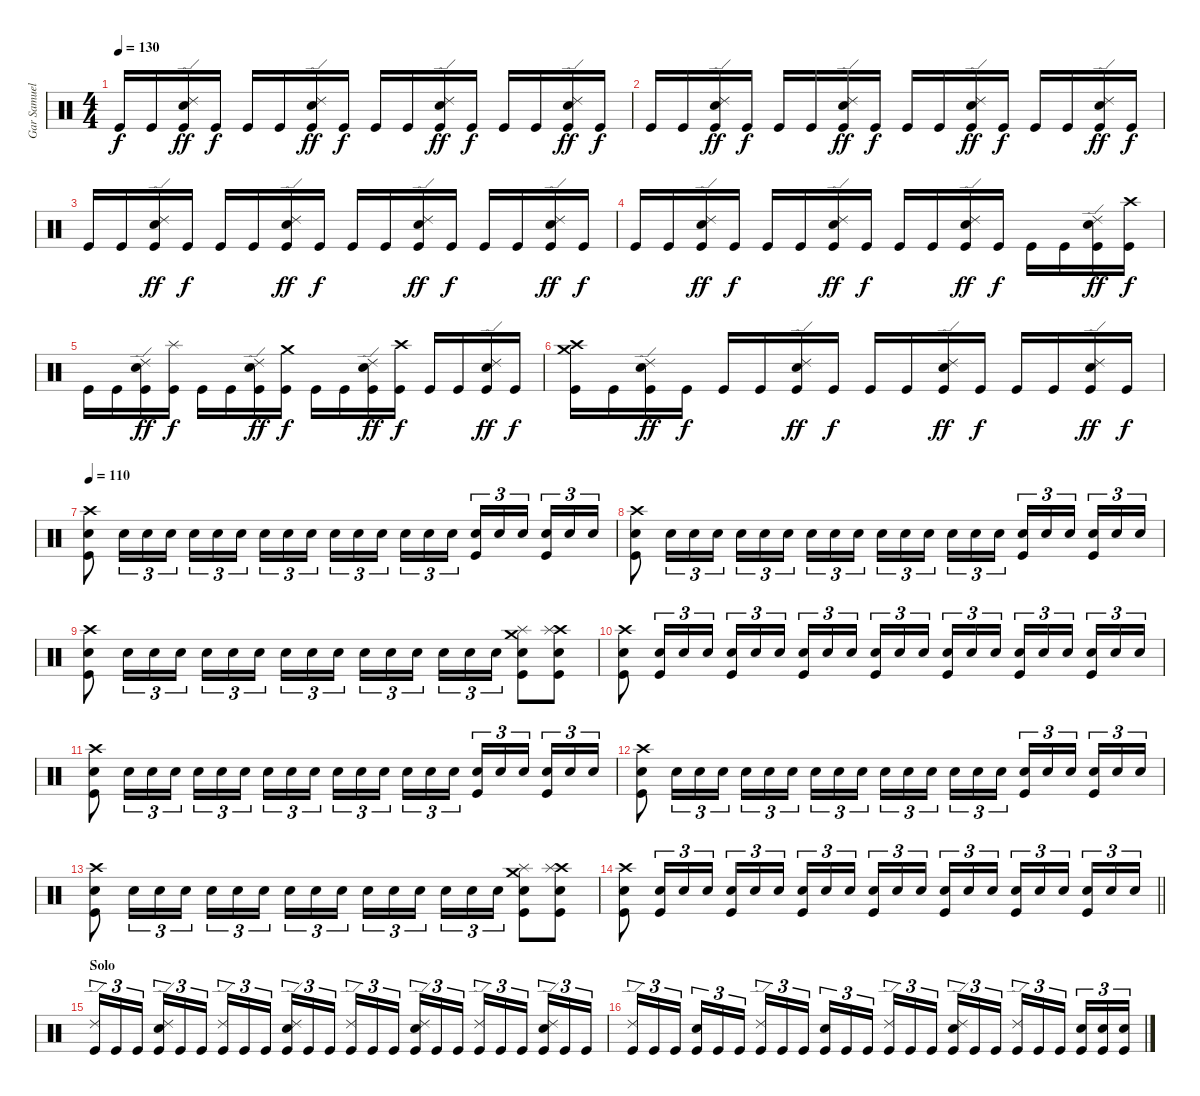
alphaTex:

\track ("Gar Samuelson" "Gar Samuel") {instrument percussion}
\staff {score}
\articulation defaults
\ts (4 4)
\tempo 130
\clef neutral
\ks c "Kick (hit)".16{dy f} "Kick (hit)".16
("Ride (edge) 2" "Snare (hit) 2" "Kick (hit)").16{dy ff} "Kick (hit)".16{dy f} "Kick (hit)".16 "Kick (hit)".16 ("Ride (edge) 2" "Snare (hit) 2" "Kick (hit)").16{dy ff} "Kick (hit)".16{dy f} "Kick (hit)".16 "Kick (hit)".16 ("Ride (edge) 2" "Snare (hit) 2" "Kick (hit)").16{dy ff} "Kick (hit)".16{dy f} "Kick (hit)".16 "Kick (hit)".16 ("Ride (edge) 2" "Snare (hit) 2" "Kick (hit)").16{dy ff} "Kick (hit)".16{dy f} |
"Kick (hit)".16 "Kick (hit)".16 ("Ride (edge) 2" "Snare (hit) 2" "Kick (hit)").16{dy ff} "Kick (hit)".16{dy f} "Kick (hit)".16 "Kick (hit)".16 ("Ride (edge) 2" "Snare (hit) 2" "Kick (hit)").16{dy ff} "Kick (hit)".16{dy f} "Kick (hit)".16 "Kick (hit)".16 ("Ride (edge) 2" "Snare (hit) 2" "Kick (hit)").16{dy ff} "Kick (hit)".16{dy f} "Kick (hit)".16 "Kick (hit)".16 ("Ride (edge) 2" "Snare (hit) 2" "Kick (hit)").16{dy ff} "Kick (hit)".16{dy f} |
"Kick (hit)".16 "Kick (hit)".16 ("Ride (edge) 2" "Snare (hit) 2" "Kick (hit)").16{dy ff} "Kick (hit)".16{dy f} "Kick (hit)".16 "Kick (hit)".16 ("Ride (edge) 2" "Snare (hit) 2" "Kick (hit)").16{dy ff} "Kick (hit)".16{dy f} "Kick (hit)".16 "Kick (hit)".16 ("Ride (edge) 2" "Snare (hit) 2" "Kick (hit)").16{dy ff} "Kick (hit)".16{dy f} "Kick (hit)".16 "Kick (hit)".16 ("Ride (edge) 2" "Snare (hit) 2" "Kick (hit)").16{dy ff} "Kick (hit)".16{dy f} |
"Kick (hit)".16 "Kick (hit)".16 ("Ride (edge) 2" "Snare (hit) 2" "Kick (hit)").16{dy ff} "Kick (hit)".16{dy f} "Kick (hit)".16 "Kick (hit)".16 ("Ride (edge) 2" "Snare (hit) 2" "Kick (hit)").16{dy ff} "Kick (hit)".16{dy f} "Kick (hit)".16 "Kick (hit)".16 ("Ride (edge) 2" "Snare (hit) 2" "Kick (hit)").16{dy ff} "Kick (hit)".16{dy f} "Kick (hit)".16 "Kick (hit)".16 ("Ride (edge) 2" "Snare (hit) 2" "Kick (hit)").16{dy ff} ("Crash high (hit)" "Kick (hit)").16{dy f} |
"Kick (hit)".16 "Kick (hit)".16 ("Ride (edge) 2" "Snare (hit) 2" "Kick (hit)").16{dy ff} ("Splash (hit)" "Kick (hit)").16{dy f} "Kick (hit)".16 "Kick (hit)".16 ("Ride (edge) 2" "Snare (hit) 2" "Kick (hit)").16{dy ff} ("Crash medium (hit)" "Kick (hit)").16{dy f} "Kick (hit)".16 "Kick (hit)".16 ("Ride (edge) 2" "Snare (hit) 2" "Kick (hit)").16{dy ff} ("Crash high (hit)" "Kick (hit)").16{dy f} "Kick (hit)".16 "Kick (hit)".16 ("Ride (edge) 2" "Snare (hit) 2" "Kick (hit)").16{dy ff} "Kick (hit)".16{dy f} |
("Crash high (hit)" "Crash medium (hit)" "Kick (hit)").16 "Kick (hit)".16 ("Ride (edge) 2" "Snare (hit) 2" "Kick (hit)").16{dy ff} "Kick (hit)".16{dy f} "Kick (hit)".16 "Kick (hit)".16 ("Ride (edge) 2" "Snare (hit) 2" "Kick (hit)").16{dy ff} "Kick (hit)".16{dy f} "Kick (hit)".16 "Kick (hit)".16 ("Ride (edge) 2" "Snare (hit) 2" "Kick (hit)").16{dy ff} "Kick (hit)".16{dy f} "Kick (hit)".16 "Kick (hit)".16 ("Ride (edge) 2" "Snare (hit) 2" "Kick (hit)").16{dy ff} "Kick (hit)".16{dy f} |
\tempo 110
("Crash high (hit)" "Snare (hit) 2" "Kick (hit)").8 "Snare (hit) 2".16{tu (3 2)} "Snare (hit) 2".16{tu (3 2)} "Snare (hit) 2".16{tu (3 2)} "Snare (hit) 2".16{tu (3 2)} "Snare (hit) 2".16{tu (3 2)} "Snare (hit) 2".16{tu (3 2)} "Snare (hit) 2".16{tu (3 2)} "Snare (hit) 2".16{tu (3 2)} "Snare (hit) 2".16{tu (3 2)} "Snare (hit) 2".16{tu (3 2)} "Snare (hit) 2".16{tu (3 2)} "Snare (hit) 2".16{tu (3 2)} "Snare (hit) 2".16{tu (3 2)} "Snare (hit) 2".16{tu (3 2)} "Snare (hit) 2".16{tu (3 2)} ("Snare (hit) 2" "Kick (hit)").16{tu (3 2)} "Snare (hit) 2".16{tu (3 2)} "Snare (hit) 2".16{tu (3 2)} ("Snare (hit) 2" "Kick (hit)").16{tu (3 2)} "Snare (hit) 2".16{tu (3 2)} "Snare (hit) 2".16{tu (3 2)} |
("Crash high (hit)" "Snare (hit) 2" "Kick (hit)").8 "Snare (hit) 2".16{tu (3 2)} "Snare (hit) 2".16{tu (3 2)} "Snare (hit) 2".16{tu (3 2)} "Snare (hit) 2".16{tu (3 2)} "Snare (hit) 2".16{tu (3 2)} "Snare (hit) 2".16{tu (3 2)} "Snare (hit) 2".16{tu (3 2)} "Snare (hit) 2".16{tu (3 2)} "Snare (hit) 2".16{tu (3 2)} "Snare (hit) 2".16{tu (3 2)} "Snare (hit) 2".16{tu (3 2)} "Snare (hit) 2".16{tu (3 2)} "Snare (hit) 2".16{tu (3 2)} "Snare (hit) 2".16{tu (3 2)} "Snare (hit) 2".16{tu (3 2)} ("Snare (hit) 2" "Kick (hit)").16{tu (3 2)} "Snare (hit) 2".16{tu (3 2)} "Snare (hit) 2".16{tu (3 2)} ("Snare (hit) 2" "Kick (hit)").16{tu (3 2)} "Snare (hit) 2".16{tu (3 2)} "Snare (hit) 2".16{tu (3 2)} |
("Crash high (hit)" "Snare (hit) 2" "Kick (hit)").8 "Snare (hit) 2".16{tu (3 2)} "Snare (hit) 2".16{tu (3 2)} "Snare (hit) 2".16{tu (3 2)} "Snare (hit) 2".16{tu (3 2)} "Snare (hit) 2".16{tu (3 2)} "Snare (hit) 2".16{tu (3 2)} "Snare (hit) 2".16{tu (3 2)} "Snare (hit) 2".16{tu (3 2)} "Snare (hit) 2".16{tu (3 2)} "Snare (hit) 2".16{tu (3 2)} "Snare (hit) 2".16{tu (3 2)} "Snare (hit) 2".16{tu (3 2)} "Snare (hit) 2".16{tu (3 2)} "Snare (hit) 2".16{tu (3 2)} "Snare (hit) 2".16{tu (3 2)} ("Crash medium (hit)" "Splash (hit)" "Snare (hit) 2" "Kick (hit)").8 ("Crash high (hit)" "Splash (hit)" "Snare (hit) 2" "Kick (hit)").8 |
("Crash high (hit)" "Snare (hit) 2" "Kick (hit)").8 ("Snare (hit) 2" "Kick (hit)").16{tu (3 2)} "Snare (hit) 2".16{tu (3 2)} "Snare (hit) 2".16{tu (3 2)} ("Snare (hit) 2" "Kick (hit)").16{tu (3 2)} "Snare (hit) 2".16{tu (3 2)} "Snare (hit) 2".16{tu (3 2)} ("Snare (hit) 2" "Kick (hit)").16{tu (3 2)} "Snare (hit) 2".16{tu (3 2)} "Snare (hit) 2".16{tu (3 2)} ("Snare (hit) 2" "Kick (hit)").16{tu (3 2)} "Snare (hit) 2".16{tu (3 2)} "Snare (hit) 2".16{tu (3 2)} ("Snare (hit) 2" "Kick (hit)").16{tu (3 2)} "Snare (hit) 2".16{tu (3 2)} "Snare (hit) 2".16{tu (3 2)} ("Snare (hit) 2" "Kick (hit)").16{tu (3 2)} "Snare (hit) 2".16{tu (3 2)} "Snare (hit) 2".16{tu (3 2)} ("Snare (hit) 2" "Kick (hit)").16{tu (3 2)} "Snare (hit) 2".16{tu (3 2)} "Snare (hit) 2".16{tu (3 2)} |
("Crash high (hit)" "Snare (hit) 2" "Kick (hit)").8 "Snare (hit) 2".16{tu (3 2)} "Snare (hit) 2".16{tu (3 2)} "Snare (hit) 2".16{tu (3 2)} "Snare (hit) 2".16{tu (3 2)} "Snare (hit) 2".16{tu (3 2)} "Snare (hit) 2".16{tu (3 2)} "Snare (hit) 2".16{tu (3 2)} "Snare (hit) 2".16{tu (3 2)} "Snare (hit) 2".16{tu (3 2)} "Snare (hit) 2".16{tu (3 2)} "Snare (hit) 2".16{tu (3 2)} "Snare (hit) 2".16{tu (3 2)} "Snare (hit) 2".16{tu (3 2)} "Snare (hit) 2".16{tu (3 2)} "Snare (hit) 2".16{tu (3 2)} ("Snare (hit) 2" "Kick (hit)").16{tu (3 2)} "Snare (hit) 2".16{tu (3 2)} "Snare (hit) 2".16{tu (3 2)} ("Snare (hit) 2" "Kick (hit)").16{tu (3 2)} "Snare (hit) 2".16{tu (3 2)} "Snare (hit) 2".16{tu (3 2)} |
("Crash high (hit)" "Snare (hit) 2" "Kick (hit)").8 "Snare (hit) 2".16{tu (3 2)} "Snare (hit) 2".16{tu (3 2)} "Snare (hit) 2".16{tu (3 2)} "Snare (hit) 2".16{tu (3 2)} "Snare (hit) 2".16{tu (3 2)} "Snare (hit) 2".16{tu (3 2)} "Snare (hit) 2".16{tu (3 2)} "Snare (hit) 2".16{tu (3 2)} "Snare (hit) 2".16{tu (3 2)} "Snare (hit) 2".16{tu (3 2)} "Snare (hit) 2".16{tu (3 2)} "Snare (hit) 2".16{tu (3 2)} "Snare (hit) 2".16{tu (3 2)} "Snare (hit) 2".16{tu (3 2)} "Snare (hit) 2".16{tu (3 2)} ("Snare (hit) 2" "Kick (hit)").16{tu (3 2)} "Snare (hit) 2".16{tu (3 2)} "Snare (hit) 2".16{tu (3 2)} ("Snare (hit) 2" "Kick (hit)").16{tu (3 2)} "Snare (hit) 2".16{tu (3 2)} "Snare (hit) 2".16{tu (3 2)} |
("Crash high (hit)" "Snare (hit) 2" "Kick (hit)").8 "Snare (hit) 2".16{tu (3 2)} "Snare (hit) 2".16{tu (3 2)} "Snare (hit) 2".16{tu (3 2)} "Snare (hit) 2".16{tu (3 2)} "Snare (hit) 2".16{tu (3 2)} "Snare (hit) 2".16{tu (3 2)} "Snare (hit) 2".16{tu (3 2)} "Snare (hit) 2".16{tu (3 2)} "Snare (hit) 2".16{tu (3 2)} "Snare (hit) 2".16{tu (3 2)} "Snare (hit) 2".16{tu (3 2)} "Snare (hit) 2".16{tu (3 2)} "Snare (hit) 2".16{tu (3 2)} "Snare (hit) 2".16{tu (3 2)} "Snare (hit) 2".16{tu (3 2)} ("Crash medium (hit)" "Splash (hit)" "Snare (hit) 2" "Kick (hit)").8 ("Crash high (hit)" "Splash (hit)" "Snare (hit) 2" "Kick (hit)").8 |
\barLineRight lightlight
("Crash high (hit)" "Snare (hit) 2" "Kick (hit)").8 ("Snare (hit) 2" "Kick (hit)").16{tu (3 2)} "Snare (hit) 2".16{tu (3 2)} "Snare (hit) 2".16{tu (3 2)} ("Snare (hit) 2" "Kick (hit)").16{tu (3 2)} "Snare (hit) 2".16{tu (3 2)} "Snare (hit) 2".16{tu (3 2)} ("Snare (hit) 2" "Kick (hit)").16{tu (3 2)} "Snare (hit) 2".16{tu (3 2)} "Snare (hit) 2".16{tu (3 2)} ("Snare (hit) 2" "Kick (hit)").16{tu (3 2)} "Snare (hit) 2".16{tu (3 2)} "Snare (hit) 2".16{tu (3 2)} ("Snare (hit) 2" "Kick (hit)").16{tu (3 2)} "Snare (hit) 2".16{tu (3 2)} "Snare (hit) 2".16{tu (3 2)} ("Snare (hit) 2" "Kick (hit)").16{tu (3 2)} "Snare (hit) 2".16{tu (3 2)} "Snare (hit) 2".16{tu (3 2)} ("Snare (hit) 2" "Kick (hit)").16{tu (3 2)} "Snare (hit) 2".16{tu (3 2)} "Snare (hit) 2".16{tu (3 2)} |
\section ("" "Solo")
("Ride (edge) 2" "Kick (hit)").16{tu (3 2)} "Kick (hit)".16{tu (3 2)} "Kick (hit)".16{tu (3 2)} ("Ride (edge) 2" "Snare (hit) 2" "Kick (hit)").16{tu (3 2)} "Kick (hit)".16{tu (3 2)} "Kick (hit)".16{tu (3 2)} ("Ride (edge) 2" "Kick (hit)").16{tu (3 2)} "Kick (hit)".16{tu (3 2)} "Kick (hit)".16{tu (3 2)} ("Ride (edge) 2" "Snare (hit) 2" "Kick (hit)").16{tu (3 2)} "Kick (hit)".16{tu (3 2)} "Kick (hit)".16{tu (3 2)} ("Ride (edge) 2" "Kick (hit)").16{tu (3 2)} "Kick (hit)".16{tu (3 2)} "Kick (hit)".16{tu (3 2)} ("Ride (edge) 2" "Snare (hit) 2" "Kick (hit)").16{tu (3 2)} "Kick (hit)".16{tu (3 2)} "Kick (hit)".16{tu (3 2)} ("Ride (edge) 2" "Kick (hit)").16{tu (3 2)} "Kick (hit)".16{tu (3 2)} "Kick (hit)".16{tu (3 2)} ("Ride (edge) 2" "Snare (hit) 2" "Kick (hit)").16{tu (3 2)} "Kick (hit)".16{tu (3 2)} "Kick (hit)".16{tu (3 2)} |
("Ride (edge) 2" "Kick (hit)").16{tu (3 2)} "Kick (hit)".16{tu (3 2)} "Kick (hit)".16{tu (3 2)} ("Snare (hit) 2" "Kick (hit)").16{tu (3 2)} "Kick (hit)".16{tu (3 2)} "Kick (hit)".16{tu (3 2)} ("Ride (edge) 2" "Kick (hit)").16{tu (3 2)} "Kick (hit)".16{tu (3 2)} "Kick (hit)".16{tu (3 2)} ("Snare (hit) 2" "Kick (hit)").16{tu (3 2)} "Kick (hit)".16{tu (3 2)} "Kick (hit)".16{tu (3 2)} ("Ride (edge) 2" "Kick (hit)").16{tu (3 2)} "Kick (hit)".16{tu (3 2)} "Kick (hit)".16{tu (3 2)} ("Ride (edge) 2" "Snare (hit) 2" "Kick (hit)").16{tu (3 2)} "Kick (hit)".16{tu (3 2)} "Kick (hit)".16{tu (3 2)} ("Ride (edge) 2" "Kick (hit)").16{tu (3 2)} "Kick (hit)".16{tu (3 2)} "Kick (hit)".16{tu (3 2)} ("Snare (hit) 2" "Kick (hit)").16{tu (3 2)} ("Snare (hit) 2" "Kick (hit)").16{tu (3 2)} ("Snare (hit) 2" "Kick (hit)").16{tu (3 2)}
